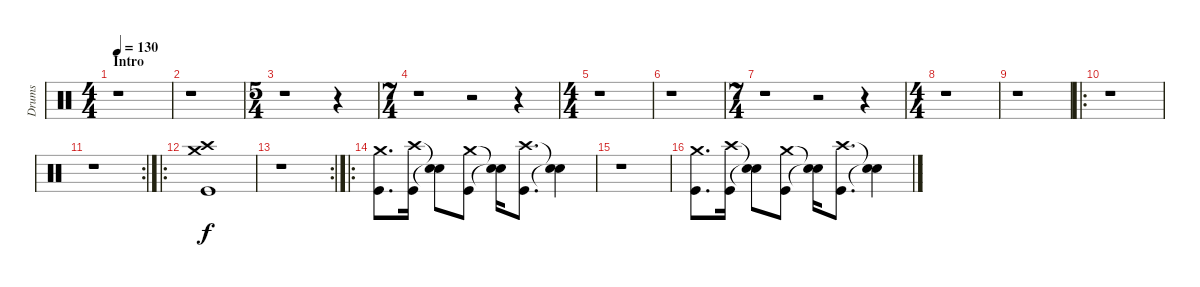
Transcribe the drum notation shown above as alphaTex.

\track ("Drums" "Drums") {instrument percussion}
\staff {score}
\articulation defaults
\ts (4 4)
\section ("" "Intro")
\tempo 130
\clef neutral
\ks c
r.1{dy f} |
r.1 |
\ts (5 4)
r.1 r.4 |
\ts (7 4)
r.1 r.2 r.4 |
\ts (4 4)
r.1 |
r.1 |
\ts (7 4)
r.1 r.2 r.4 |
\ts (4 4)
r.1 |
r.1 |
\ro
r.1 |
\rc 2
r.1 |
\ro
("Crash medium (hit)" "Crash high (hit)" "Kick (hit)").1 |
\rc 2
r.1 |
\ro
("Crash medium (hit)" "Kick (hit)").8{d} ("Crash high (hit)" "Kick (hit)").16 ("Snare (hit)"{t} "Snare (hit)"{t}).8 ("Crash medium (hit)" "Kick (hit)").8 ("Snare (hit)"{t} "Snare (hit)"{t}).16 ("Crash high (hit)" "Kick (hit)").8{d} ("Snare (hit)"{t} "Snare (hit)"{t}).4 |
r.1 |
("Crash medium (hit)" "Kick (hit)").8{d} ("Crash high (hit)" "Kick (hit)").16 ("Snare (hit)"{t} "Snare (hit)"{t}).8 ("Crash medium (hit)" "Kick (hit)").8 ("Snare (hit)"{t} "Snare (hit)"{t}).16 ("Crash high (hit)" "Kick (hit)").8{d} ("Snare (hit)"{t} "Snare (hit)"{t}).4
